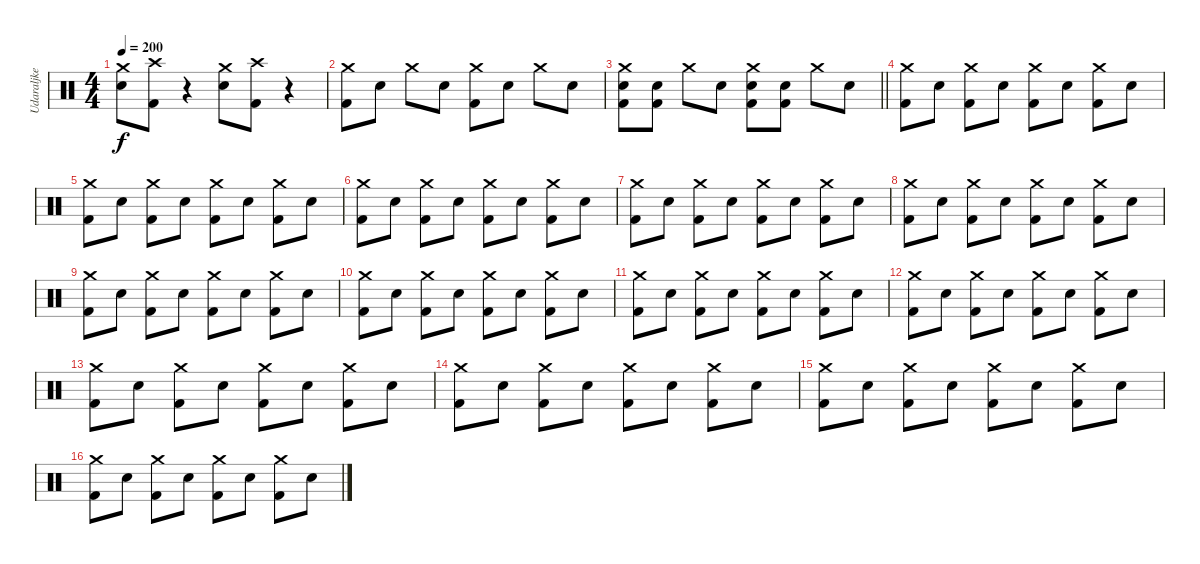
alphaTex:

\track ("Udaraljke" "Udaraljke") {instrument percussion}
\staff {score}
\articulation defaults
\ts (4 4)
\tempo 200
\clef neutral
\ks c
("Crash medium (hit)" "Electric Snare (hit)").8{dy f} ("Crash high (hit)" "Kick (hit) 2").8 r.4 ("Crash medium (hit)" "Electric Snare (hit)").8 ("Crash high (hit)" "Kick (hit) 2").8 r.4 |
("Crash medium (hit)" "Kick (hit) 2").8 "Electric Snare (hit)".8 "Crash medium (hit)".8 "Electric Snare (hit)".8 ("Crash medium (hit)" "Kick (hit) 2").8 "Electric Snare (hit)".8 "Crash medium (hit)".8 "Electric Snare (hit)".8 |
\barLineRight lightlight
("Crash medium (hit)" "Electric Snare (hit)" "Kick (hit) 2").8 ("Electric Snare (hit)" "Kick (hit) 2").8 "Crash medium (hit)".8 "Electric Snare (hit)".8 ("Crash medium (hit)" "Electric Snare (hit)" "Kick (hit) 2").8 ("Electric Snare (hit)" "Kick (hit) 2").8 "Crash medium (hit)".8 "Electric Snare (hit)".8 |
("Crash medium (hit)" "Kick (hit) 2").8 "Electric Snare (hit)".8 ("Crash medium (hit)" "Kick (hit) 2").8 "Electric Snare (hit)".8 ("Crash medium (hit)" "Kick (hit) 2").8 "Electric Snare (hit)".8 ("Crash medium (hit)" "Kick (hit) 2").8 "Electric Snare (hit)".8 |
("Crash medium (hit)" "Kick (hit) 2").8 "Electric Snare (hit)".8 ("Crash medium (hit)" "Kick (hit) 2").8 "Electric Snare (hit)".8 ("Crash medium (hit)" "Kick (hit) 2").8 "Electric Snare (hit)".8 ("Crash medium (hit)" "Kick (hit) 2").8 "Electric Snare (hit)".8 |
("Crash medium (hit)" "Kick (hit) 2").8 "Electric Snare (hit)".8 ("Crash medium (hit)" "Kick (hit) 2").8 "Electric Snare (hit)".8 ("Crash medium (hit)" "Kick (hit) 2").8 "Electric Snare (hit)".8 ("Crash medium (hit)" "Kick (hit) 2").8 "Electric Snare (hit)".8 |
("Crash medium (hit)" "Kick (hit) 2").8 "Electric Snare (hit)".8 ("Crash medium (hit)" "Kick (hit) 2").8 "Electric Snare (hit)".8 ("Crash medium (hit)" "Kick (hit) 2").8 "Electric Snare (hit)".8 ("Crash medium (hit)" "Kick (hit) 2").8 "Electric Snare (hit)".8 |
("Crash medium (hit)" "Kick (hit) 2").8 "Electric Snare (hit)".8 ("Crash medium (hit)" "Kick (hit) 2").8 "Electric Snare (hit)".8 ("Crash medium (hit)" "Kick (hit) 2").8 "Electric Snare (hit)".8 ("Crash medium (hit)" "Kick (hit) 2").8 "Electric Snare (hit)".8 |
("Crash medium (hit)" "Kick (hit) 2").8 "Electric Snare (hit)".8 ("Crash medium (hit)" "Kick (hit) 2").8 "Electric Snare (hit)".8 ("Crash medium (hit)" "Kick (hit) 2").8 "Electric Snare (hit)".8 ("Crash medium (hit)" "Kick (hit) 2").8 "Electric Snare (hit)".8 |
("Crash medium (hit)" "Kick (hit) 2").8 "Electric Snare (hit)".8 ("Crash medium (hit)" "Kick (hit) 2").8 "Electric Snare (hit)".8 ("Crash medium (hit)" "Kick (hit) 2").8 "Electric Snare (hit)".8 ("Crash medium (hit)" "Kick (hit) 2").8 "Electric Snare (hit)".8 |
("Crash medium (hit)" "Kick (hit) 2").8 "Electric Snare (hit)".8 ("Crash medium (hit)" "Kick (hit) 2").8 "Electric Snare (hit)".8 ("Crash medium (hit)" "Kick (hit) 2").8 "Electric Snare (hit)".8 ("Crash medium (hit)" "Kick (hit) 2").8 "Electric Snare (hit)".8 |
("Crash medium (hit)" "Kick (hit) 2").8 "Electric Snare (hit)".8 ("Crash medium (hit)" "Kick (hit) 2").8 "Electric Snare (hit)".8 ("Crash medium (hit)" "Kick (hit) 2").8 "Electric Snare (hit)".8 ("Crash medium (hit)" "Kick (hit) 2").8 "Electric Snare (hit)".8 |
("Crash medium (hit)" "Kick (hit) 2").8 "Electric Snare (hit)".8 ("Crash medium (hit)" "Kick (hit) 2").8 "Electric Snare (hit)".8 ("Crash medium (hit)" "Kick (hit) 2").8 "Electric Snare (hit)".8 ("Crash medium (hit)" "Kick (hit) 2").8 "Electric Snare (hit)".8 |
("Crash medium (hit)" "Kick (hit) 2").8 "Electric Snare (hit)".8 ("Crash medium (hit)" "Kick (hit) 2").8 "Electric Snare (hit)".8 ("Crash medium (hit)" "Kick (hit) 2").8 "Electric Snare (hit)".8 ("Crash medium (hit)" "Kick (hit) 2").8 "Electric Snare (hit)".8 |
("Crash medium (hit)" "Kick (hit) 2").8 "Electric Snare (hit)".8 ("Crash medium (hit)" "Kick (hit) 2").8 "Electric Snare (hit)".8 ("Crash medium (hit)" "Kick (hit) 2").8 "Electric Snare (hit)".8 ("Crash medium (hit)" "Kick (hit) 2").8 "Electric Snare (hit)".8 |
("Crash medium (hit)" "Kick (hit) 2").8 "Electric Snare (hit)".8 ("Crash medium (hit)" "Kick (hit) 2").8 "Electric Snare (hit)".8 ("Crash medium (hit)" "Kick (hit) 2").8 "Electric Snare (hit)".8 ("Crash medium (hit)" "Kick (hit) 2").8 "Electric Snare (hit)".8
